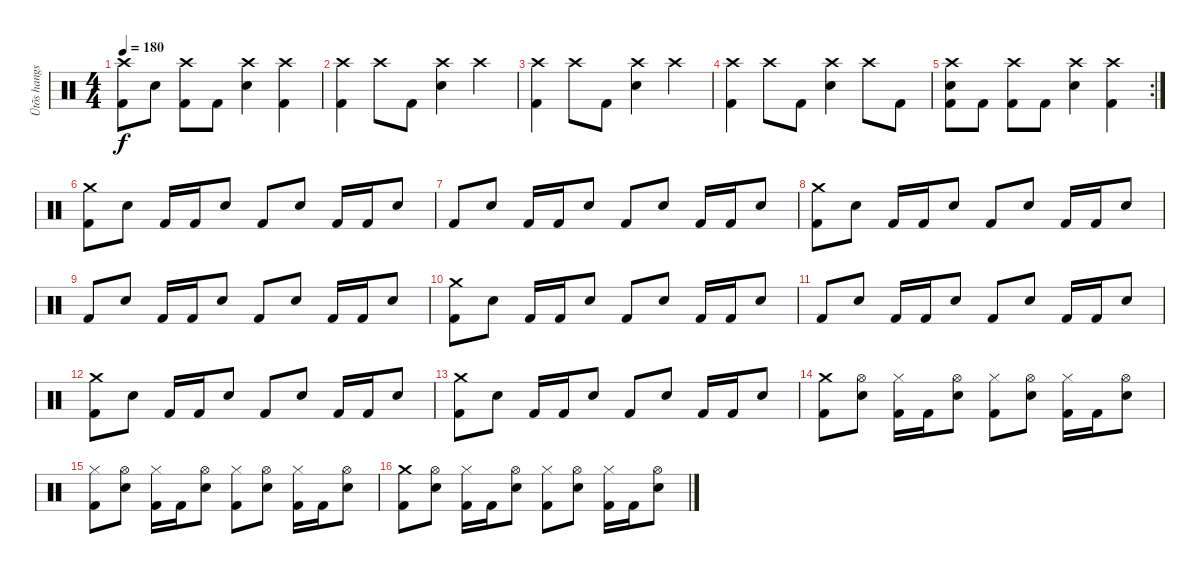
\track ("Ütõs hangszer" "Ütõs hangs") {instrument percussion}
\staff {score}
\articulation defaults
\ts (4 4)
\tempo 180
\clef neutral
\ks c
("Crash high (hit)" "Kick (hit) 2").8{dy f} "Snare (hit) 2".8 ("Crash high (hit)" "Kick (hit) 2").8 "Kick (hit) 2".8 ("Crash high (hit)" "Snare (hit) 2").4 ("Crash high (hit)" "Kick (hit) 2").4 |
("Crash high (hit)" "Kick (hit) 2").4 "Crash high (hit)".8 "Kick (hit) 2".8 ("Crash high (hit)" "Snare (hit) 2").4 "Crash high (hit)".4 |
("Crash high (hit)" "Kick (hit) 2").4 "Crash high (hit)".8 "Kick (hit) 2".8 ("Crash high (hit)" "Snare (hit) 2").4 "Crash high (hit)".4 |
("Crash high (hit)" "Kick (hit) 2").4 "Crash high (hit)".8 "Kick (hit) 2".8 ("Crash high (hit)" "Snare (hit) 2").4 "Crash high (hit)".8 "Kick (hit) 2".8 |
\rc 2
("Crash high (hit)" "Snare (hit) 2" "Kick (hit) 2").8 "Kick (hit) 2".8 ("Crash high (hit)" "Kick (hit) 2").8 "Kick (hit) 2".8 ("Crash high (hit)" "Snare (hit) 2").4 ("Crash high (hit)" "Kick (hit) 2").4 |
("Crash medium (hit)" "Kick (hit) 2").8 "Snare (hit) 2".8 "Kick (hit) 2".16 "Kick (hit) 2".16 "Snare (hit) 2".8 "Kick (hit) 2".8 "Snare (hit) 2".8 "Kick (hit) 2".16 "Kick (hit) 2".16 "Snare (hit) 2".8 |
"Kick (hit) 2".8 "Snare (hit) 2".8 "Kick (hit) 2".16 "Kick (hit) 2".16 "Snare (hit) 2".8 "Kick (hit) 2".8 "Snare (hit) 2".8 "Kick (hit) 2".16 "Kick (hit) 2".16 "Snare (hit) 2".8 |
("Crash medium (hit)" "Kick (hit) 2").8 "Snare (hit) 2".8 "Kick (hit) 2".16 "Kick (hit) 2".16 "Snare (hit) 2".8 "Kick (hit) 2".8 "Snare (hit) 2".8 "Kick (hit) 2".16 "Kick (hit) 2".16 "Snare (hit) 2".8 |
"Kick (hit) 2".8 "Snare (hit) 2".8 "Kick (hit) 2".16 "Kick (hit) 2".16 "Snare (hit) 2".8 "Kick (hit) 2".8 "Snare (hit) 2".8 "Kick (hit) 2".16 "Kick (hit) 2".16 "Snare (hit) 2".8 |
("Crash medium (hit)" "Kick (hit) 2").8 "Snare (hit) 2".8 "Kick (hit) 2".16 "Kick (hit) 2".16 "Snare (hit) 2".8 "Kick (hit) 2".8 "Snare (hit) 2".8 "Kick (hit) 2".16 "Kick (hit) 2".16 "Snare (hit) 2".8 |
"Kick (hit) 2".8 "Snare (hit) 2".8 "Kick (hit) 2".16 "Kick (hit) 2".16 "Snare (hit) 2".8 "Kick (hit) 2".8 "Snare (hit) 2".8 "Kick (hit) 2".16 "Kick (hit) 2".16 "Snare (hit) 2".8 |
("Crash medium (hit)" "Kick (hit) 2").8 "Snare (hit) 2".8 "Kick (hit) 2".16 "Kick (hit) 2".16 "Snare (hit) 2".8 "Kick (hit) 2".8 "Snare (hit) 2".8 "Kick (hit) 2".16 "Kick (hit) 2".16 "Snare (hit) 2".8 |
("Crash medium (hit)" "Kick (hit) 2").8 "Snare (hit) 2".8 "Kick (hit) 2".16 "Kick (hit) 2".16 "Snare (hit) 2".8 "Kick (hit) 2".8 "Snare (hit) 2".8 "Kick (hit) 2".16 "Kick (hit) 2".16 "Snare (hit) 2".8 |
("Crash medium (hit)" "Kick (hit) 2").8 ("Hi-Hat (open)" "Snare (hit) 2").8 ("Hi-Hat (closed)" "Kick (hit) 2").16 "Kick (hit) 2".16 ("Hi-Hat (open)" "Snare (hit) 2").8 ("Hi-Hat (closed)" "Kick (hit) 2").8 ("Hi-Hat (open)" "Snare (hit) 2").8 ("Hi-Hat (closed)" "Kick (hit) 2").16 "Kick (hit) 2".16 ("Hi-Hat (open)" "Snare (hit) 2").8 |
("Hi-Hat (closed)" "Kick (hit) 2").8 ("Hi-Hat (open)" "Snare (hit) 2").8 ("Hi-Hat (closed)" "Kick (hit) 2").16 "Kick (hit) 2".16 ("Hi-Hat (open)" "Snare (hit) 2").8 ("Hi-Hat (closed)" "Kick (hit) 2").8 ("Hi-Hat (open)" "Snare (hit) 2").8 ("Hi-Hat (closed)" "Kick (hit) 2").16 "Kick (hit) 2".16 ("Hi-Hat (open)" "Snare (hit) 2").8 |
("Crash medium (hit)" "Kick (hit) 2").8 ("Hi-Hat (open)" "Snare (hit) 2").8 ("Hi-Hat (closed)" "Kick (hit) 2").16 "Kick (hit) 2".16 ("Hi-Hat (open)" "Snare (hit) 2").8 ("Hi-Hat (closed)" "Kick (hit) 2").8 ("Hi-Hat (open)" "Snare (hit) 2").8 ("Hi-Hat (closed)" "Kick (hit) 2").16 "Kick (hit) 2".16 ("Hi-Hat (open)" "Snare (hit) 2").8
